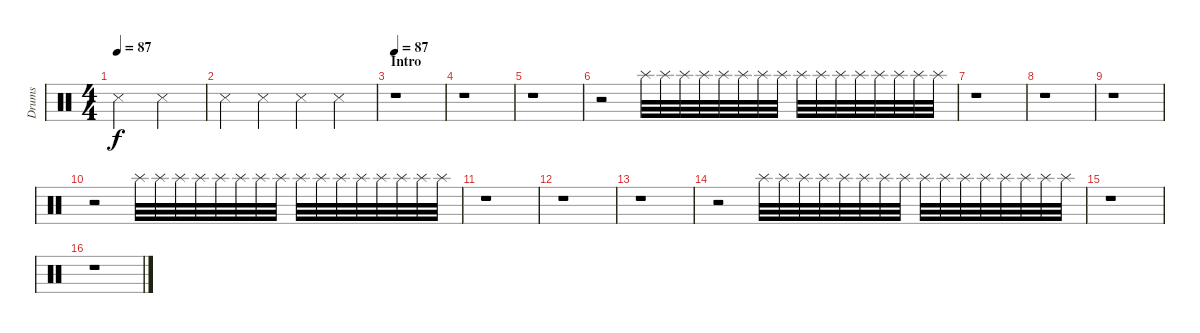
\track ("Drums" "Drums") {instrument percussion}
\staff {score}
\articulation defaults
\ts (4 4)
\tempo 87
\clef neutral
\ks c "Snare (side stick) 3".2{dy f volume 12} "Snare (side stick) 3".2
|
"Snare (side stick) 3".4 "Snare (side stick) 3".4 "Snare (side stick) 3".4 "Snare (side stick) 3".4 |
\section ("" "Intro")
\tempo 87
r.1 |
r.1 |
r.1 |
r.2{volume 6} "Splash (hit)".32{volume 12} "Splash (hit)".32 "Splash (hit)".32 "Splash (hit)".32 "Splash (hit)".32 "Splash (hit)".32 "Splash (hit)".32 "Splash (hit)".32 "Splash (hit)".32 "Splash (hit)".32 "Splash (hit)".32 "Splash (hit)".32 "Splash (hit)".32 "Splash (hit)".32 "Splash (hit)".32 "Splash (hit)".32 |
r.1 |
r.1 |
r.1 |
r.2{volume 6} "Splash (hit)".32{volume 12} "Splash (hit)".32 "Splash (hit)".32 "Splash (hit)".32 "Splash (hit)".32 "Splash (hit)".32 "Splash (hit)".32 "Splash (hit)".32 "Splash (hit)".32 "Splash (hit)".32 "Splash (hit)".32 "Splash (hit)".32 "Splash (hit)".32 "Splash (hit)".32 "Splash (hit)".32 "Splash (hit)".32 |
r.1 |
r.1 |
r.1 |
r.2{volume 6} "Splash (hit)".32{volume 12} "Splash (hit)".32 "Splash (hit)".32 "Splash (hit)".32 "Splash (hit)".32 "Splash (hit)".32 "Splash (hit)".32 "Splash (hit)".32 "Splash (hit)".32 "Splash (hit)".32 "Splash (hit)".32 "Splash (hit)".32 "Splash (hit)".32 "Splash (hit)".32 "Splash (hit)".32 "Splash (hit)".32 |
r.1 |
r.1
